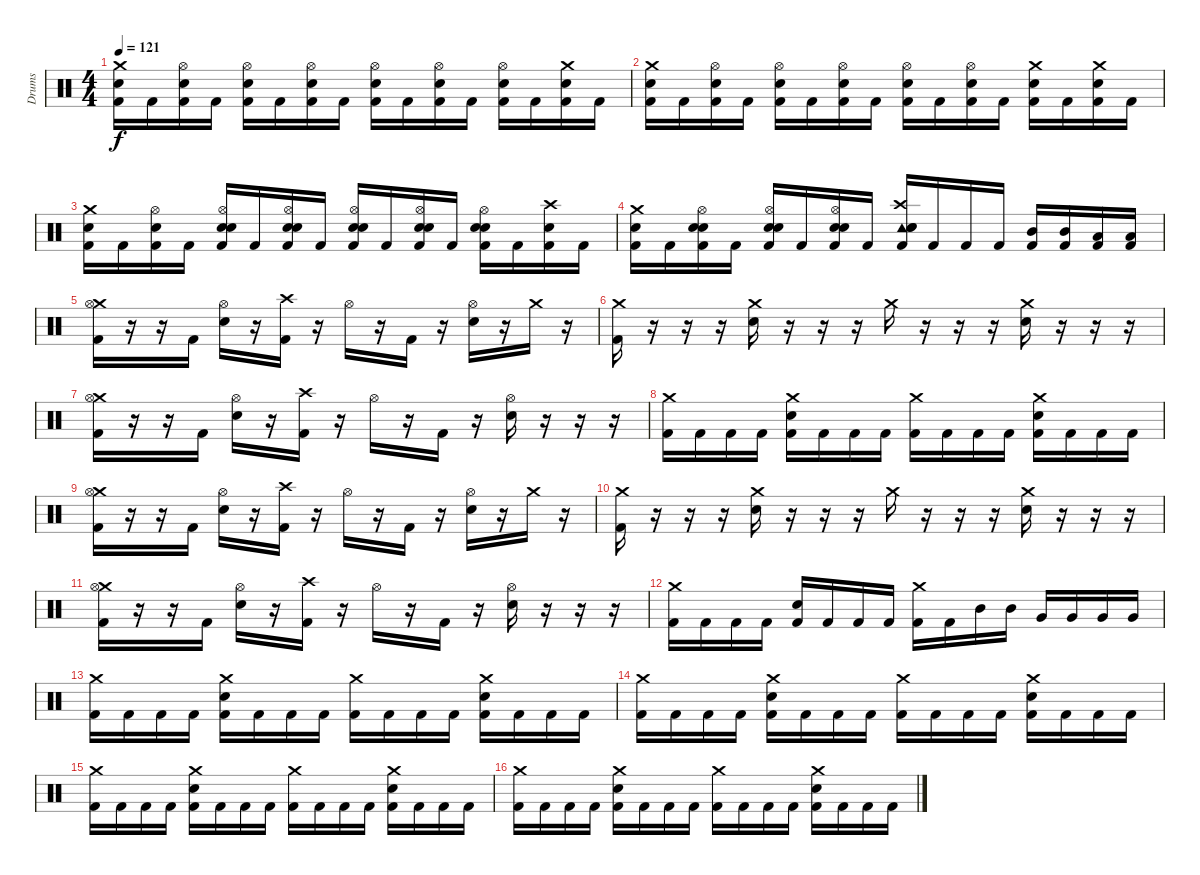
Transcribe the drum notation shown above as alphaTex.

\track ("Drums" "Drums") {instrument percussion}
\staff {score}
\articulation defaults
\ts (4 4)
\tempo 121
\clef neutral
\ks c
("Crash medium (hit)" "Snare (hit) 2" "Kick (hit) 2").16{dy f} "Kick (hit) 2".16 ("Hi-Hat (open)" "Snare (hit) 2" "Kick (hit) 2").16 "Kick (hit) 2".16 ("Hi-Hat (open)" "Snare (hit) 2" "Kick (hit) 2").16 "Kick (hit) 2".16 ("Hi-Hat (open)" "Snare (hit) 2" "Kick (hit) 2").16 "Kick (hit) 2".16 ("Hi-Hat (open)" "Snare (hit) 2" "Kick (hit) 2").16 "Kick (hit) 2".16 ("Hi-Hat (open)" "Snare (hit) 2" "Kick (hit) 2").16 "Kick (hit) 2".16 ("Hi-Hat (open)" "Snare (hit) 2" "Kick (hit) 2").16 "Kick (hit) 2".16 ("Crash medium (hit)" "Snare (hit) 2" "Kick (hit) 2").16 "Kick (hit) 2".16 |
("Crash medium (hit)" "Snare (hit) 2" "Kick (hit) 2").16 "Kick (hit) 2".16 ("Hi-Hat (open)" "Snare (hit) 2" "Kick (hit) 2").16 "Kick (hit) 2".16 ("Hi-Hat (open)" "Snare (hit) 2" "Kick (hit) 2").16 "Kick (hit) 2".16 ("Hi-Hat (open)" "Snare (hit) 2" "Kick (hit) 2").16 "Kick (hit) 2".16 ("Hi-Hat (open)" "Snare (hit) 2" "Kick (hit) 2").16 "Kick (hit) 2".16 ("Hi-Hat (open)" "Snare (hit) 2" "Kick (hit) 2").16 "Kick (hit) 2".16 ("Crash medium (hit)" "Snare (hit) 2" "Kick (hit) 2").16 "Kick (hit) 2".16 ("Crash medium (hit)" "Snare (hit) 2" "Kick (hit) 2").16 "Kick (hit) 2".16 |
("Crash medium (hit)" "Snare (hit) 2" "Kick (hit) 2").16 "Kick (hit) 2".16 ("Hi-Hat (open)" "Snare (hit) 2" "Kick (hit) 2").16 "Kick (hit) 2".16 ("Hi-Hat (open)" "Electric Snare (hit)" "Snare (hit) 2" "Kick (hit) 2").16 "Kick (hit) 2".16 ("Hi-Hat (open)" "Electric Snare (hit)" "Snare (hit) 2" "Kick (hit) 2").16 "Kick (hit) 2".16 ("Hi-Hat (open)" "Electric Snare (hit)" "Snare (hit) 2" "Kick (hit) 2").16 "Kick (hit) 2".16 ("Hi-Hat (open)" "Electric Snare (hit)" "Snare (hit) 2" "Kick (hit) 2").16 "Kick (hit) 2".16 ("Hi-Hat (open)" "Electric Snare (hit)" "Snare (hit) 2" "Kick (hit) 2").16 "Kick (hit) 2".16 ("Crash high (hit)" "Snare (hit) 2" "Kick (hit) 2").16 "Kick (hit) 2".16 |
("Crash medium (hit)" "Snare (hit) 2" "Kick (hit) 2").16 "Kick (hit) 2".16 ("Hi-Hat (open)" "Electric Snare (hit)" "Snare (hit) 2" "Kick (hit) 2").16 "Kick (hit) 2".16 ("Hi-Hat (open)" "Electric Snare (hit)" "Snare (hit) 2" "Kick (hit) 2").16 "Kick (hit) 2".16 ("Hi-Hat (open)" "Electric Snare (hit)" "Snare (hit) 2" "Kick (hit) 2").16 "Kick (hit) 2".16 ("Crash high (hit)" "Tambourine (hit)" "Electric Snare (hit)" "Snare (hit) 2" "Kick (hit) 2").16 "Kick (hit) 2".16 "Kick (hit) 2".16 "Kick (hit) 2".16 ("Mid Tom (hit)" "Kick (hit) 2").16 ("Mid Tom (hit)" "Kick (hit) 2").16 ("Low Tom (hit)" "Kick (hit) 2").16 ("Low Tom (hit)" "Kick (hit) 2").16 |
("Crash medium (hit)" "Hi-Hat (open)" "Kick (hit) 2").16 r.16 r.16 "Kick (hit) 2".16 ("Hi-Hat (open)" "Electric Snare (hit)").16 r.16 ("Crash high (hit)" "Kick (hit) 2").16 r.16 "Hi-Hat (open)".16 r.16 "Kick (hit) 2".16 r.16 ("Hi-Hat (open)" "Electric Snare (hit)").16 r.16 "Crash medium (hit)".16 r.16 |
("Crash medium (hit)" "Kick (hit) 2").16 r.16 r.16 r.16 ("Crash medium (hit)" "Electric Snare (hit)").16 r.16 r.16 r.16 "Crash medium (hit)".16 r.16 r.16 r.16 ("Crash medium (hit)" "Electric Snare (hit)").16 r.16 r.16 r.16 |
("Crash medium (hit)" "Hi-Hat (open)" "Kick (hit) 2").16 r.16 r.16 "Kick (hit) 2".16 ("Hi-Hat (open)" "Electric Snare (hit)").16 r.16 ("Crash high (hit)" "Kick (hit) 2").16 r.16 "Hi-Hat (open)".16 r.16 "Kick (hit) 2".16 r.16 ("Hi-Hat (open)" "Electric Snare (hit)").16 r.16 r.16 r.16 |
("Crash medium (hit)" "Kick (hit) 2").16 "Kick (hit) 2".16 "Kick (hit) 2".16 "Kick (hit) 2".16 ("Crash medium (hit)" "Electric Snare (hit)" "Kick (hit) 2").16 "Kick (hit) 2".16 "Kick (hit) 2".16 "Kick (hit) 2".16 ("Crash medium (hit)" "Kick (hit) 2").16 "Kick (hit) 2".16 "Kick (hit) 2".16 "Kick (hit) 2".16 ("Crash medium (hit)" "Electric Snare (hit)" "Kick (hit) 2").16 "Kick (hit) 2".16 "Kick (hit) 2".16 "Kick (hit) 2".16 |
("Crash medium (hit)" "Hi-Hat (open)" "Kick (hit) 2").16 r.16 r.16 "Kick (hit) 2".16 ("Hi-Hat (open)" "Electric Snare (hit)").16 r.16 ("Crash high (hit)" "Kick (hit) 2").16 r.16 "Hi-Hat (open)".16 r.16 "Kick (hit) 2".16 r.16 ("Hi-Hat (open)" "Electric Snare (hit)").16 r.16 "Crash medium (hit)".16 r.16 |
("Crash medium (hit)" "Kick (hit) 2").16 r.16 r.16 r.16 ("Crash medium (hit)" "Electric Snare (hit)").16 r.16 r.16 r.16 "Crash medium (hit)".16 r.16 r.16 r.16 ("Crash medium (hit)" "Electric Snare (hit)").16 r.16 r.16 r.16 |
("Crash medium (hit)" "Hi-Hat (open)" "Kick (hit) 2").16 r.16 r.16 "Kick (hit) 2".16 ("Hi-Hat (open)" "Electric Snare (hit)").16 r.16 ("Crash high (hit)" "Kick (hit) 2").16 r.16 "Hi-Hat (open)".16 r.16 "Kick (hit) 2".16 r.16 ("Hi-Hat (open)" "Electric Snare (hit)").16 r.16 r.16 r.16 |
("Crash medium (hit)" "Kick (hit) 2").16 "Kick (hit) 2".16 "Kick (hit) 2".16 "Kick (hit) 2".16 ("Electric Snare (hit)" "Kick (hit) 2").16 "Kick (hit) 2".16 "Kick (hit) 2".16 "Kick (hit) 2".16 ("Crash medium (hit)" "Kick (hit) 2").16 "Kick (hit) 2".16 "Mid Tom (hit)".16 "Mid Tom (hit)".16 "Very Low Tom (hit)".16 "Very Low Tom (hit)".16 "Very Low Tom (hit)".16 "Very Low Tom (hit)".16 |
("Crash medium (hit)" "Kick (hit) 2").16 "Kick (hit) 2".16 "Kick (hit) 2".16 "Kick (hit) 2".16 ("Crash medium (hit)" "Electric Snare (hit)" "Kick (hit) 2").16 "Kick (hit) 2".16 "Kick (hit) 2".16 "Kick (hit) 2".16 ("Crash medium (hit)" "Kick (hit) 2").16 "Kick (hit) 2".16 "Kick (hit) 2".16 "Kick (hit) 2".16 ("Crash medium (hit)" "Electric Snare (hit)" "Kick (hit) 2").16 "Kick (hit) 2".16 "Kick (hit) 2".16 "Kick (hit) 2".16 |
("Crash medium (hit)" "Kick (hit) 2").16 "Kick (hit) 2".16 "Kick (hit) 2".16 "Kick (hit) 2".16 ("Crash medium (hit)" "Electric Snare (hit)" "Kick (hit) 2").16 "Kick (hit) 2".16 "Kick (hit) 2".16 "Kick (hit) 2".16 ("Crash medium (hit)" "Kick (hit) 2").16 "Kick (hit) 2".16 "Kick (hit) 2".16 "Kick (hit) 2".16 ("Crash medium (hit)" "Electric Snare (hit)" "Kick (hit) 2").16 "Kick (hit) 2".16 "Kick (hit) 2".16 "Kick (hit) 2".16 |
("Crash medium (hit)" "Kick (hit) 2").16 "Kick (hit) 2".16 "Kick (hit) 2".16 "Kick (hit) 2".16 ("Crash medium (hit)" "Electric Snare (hit)" "Kick (hit) 2").16 "Kick (hit) 2".16 "Kick (hit) 2".16 "Kick (hit) 2".16 ("Crash medium (hit)" "Kick (hit) 2").16 "Kick (hit) 2".16 "Kick (hit) 2".16 "Kick (hit) 2".16 ("Crash medium (hit)" "Electric Snare (hit)" "Kick (hit) 2").16 "Kick (hit) 2".16 "Kick (hit) 2".16 "Kick (hit) 2".16 |
("Crash medium (hit)" "Kick (hit) 2").16 "Kick (hit) 2".16 "Kick (hit) 2".16 "Kick (hit) 2".16 ("Crash medium (hit)" "Electric Snare (hit)" "Kick (hit) 2").16 "Kick (hit) 2".16 "Kick (hit) 2".16 "Kick (hit) 2".16 ("Crash medium (hit)" "Kick (hit) 2").16 "Kick (hit) 2".16 "Kick (hit) 2".16 "Kick (hit) 2".16 ("Crash medium (hit)" "Electric Snare (hit)" "Kick (hit) 2").16 "Kick (hit) 2".16 "Kick (hit) 2".16 "Kick (hit) 2".16
